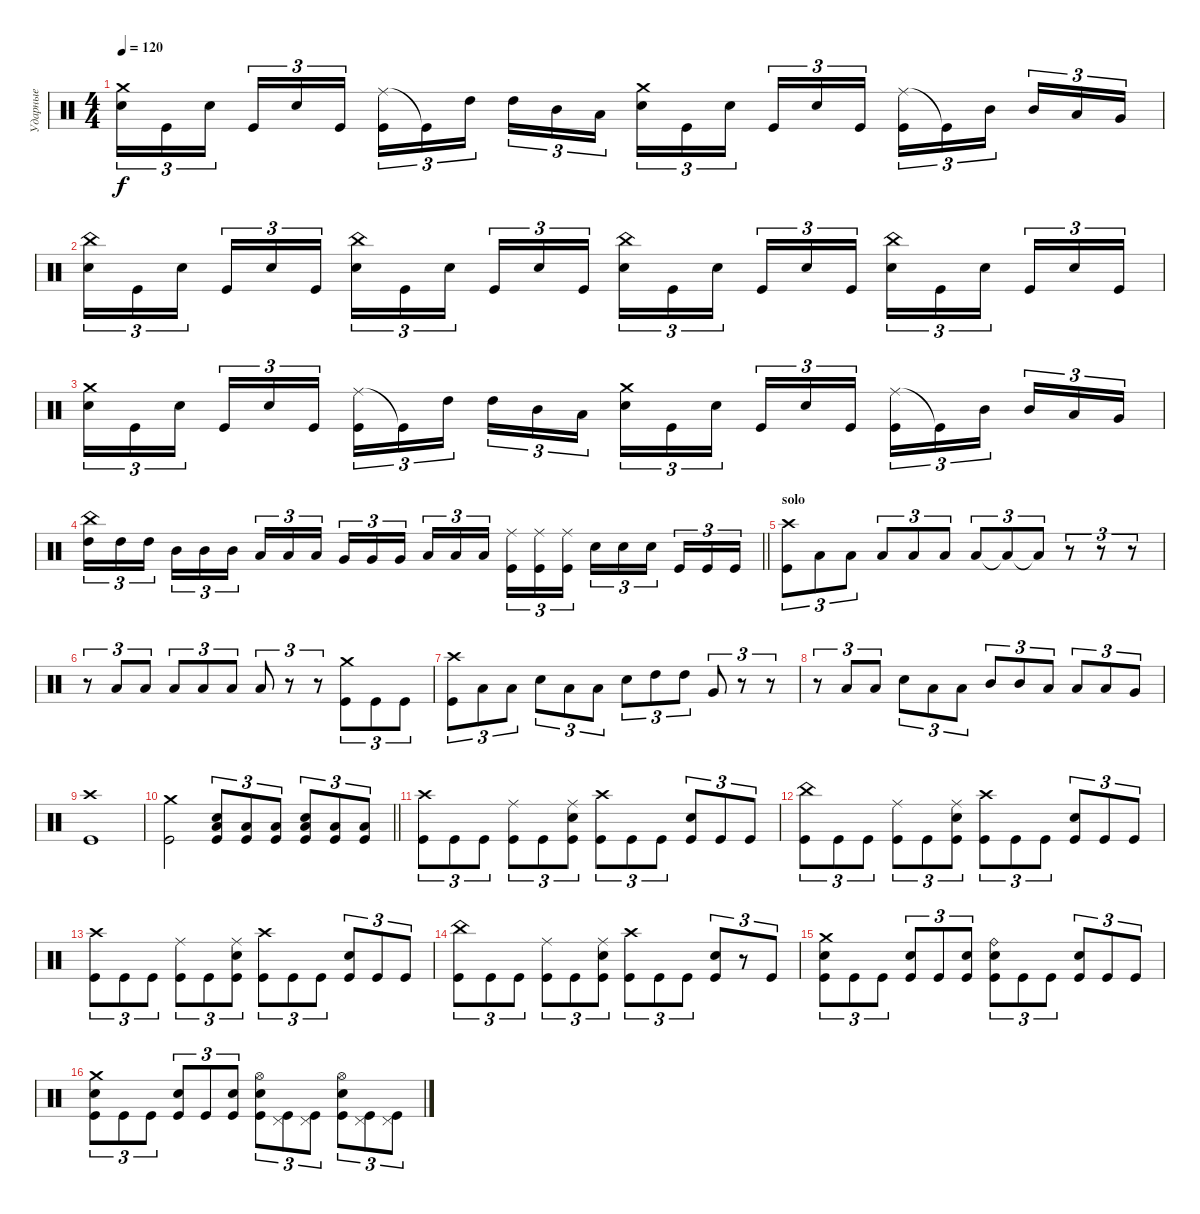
\track ("Ударные" "Ударные") {instrument percussion}
\staff {score}
\articulation defaults
\ts (4 4)
\tempo 120
\clef neutral
\ks c
("Crash medium (hit)" "Electric Snare (hit)").16{tu (3 2) dy f} "Kick (hit)".16{tu (3 2)} "Electric Snare (hit)".16{tu (3 2) beam splitsecondary} "Kick (hit)".16{tu (3 2)} "Electric Snare (hit)".16{tu (3 2)} "Kick (hit)".16{tu (3 2)} ("Ride (middle)" "Kick (hit)").16{tu (3 2)} "Kick (hit)"{t}.16{tu (3 2)} "High Tom (hit)".16{tu (3 2) beam splitsecondary} "High Tom (hit)".16{tu (3 2)} "Mid Tom (hit)".16{tu (3 2)} "Low Tom (hit)".16{tu (3 2)} ("Crash medium (hit)" "Electric Snare (hit)").16{tu (3 2)} "Kick (hit)".16{tu (3 2)} "Electric Snare (hit)".16{tu (3 2) beam splitsecondary} "Kick (hit)".16{tu (3 2)} "Electric Snare (hit)".16{tu (3 2)} "Kick (hit)".16{tu (3 2)} ("Ride (middle)" "Kick (hit)").16{tu (3 2)} "Kick (hit)"{t}.16{tu (3 2)} "Mid Tom (hit)".16{tu (3 2) beam splitsecondary} "Mid Tom (hit)".16{tu (3 2)} "Low Tom (hit)".16{tu (3 2)} "Very Low Tom (hit)".16{tu (3 2)} |
("China (hit)" "Electric Snare (hit)").16{tu (3 2)} "Kick (hit)".16{tu (3 2)} "Electric Snare (hit)".16{tu (3 2) beam splitsecondary} "Kick (hit)".16{tu (3 2)} "Electric Snare (hit)".16{tu (3 2)} "Kick (hit)".16{tu (3 2)} ("China (hit)" "Electric Snare (hit)").16{tu (3 2)} "Kick (hit)".16{tu (3 2)} "Electric Snare (hit)".16{tu (3 2) beam splitsecondary} "Kick (hit)".16{tu (3 2)} "Electric Snare (hit)".16{tu (3 2)} "Kick (hit)".16{tu (3 2)} ("China (hit)" "Electric Snare (hit)").16{tu (3 2)} "Kick (hit)".16{tu (3 2)} "Electric Snare (hit)".16{tu (3 2) beam splitsecondary} "Kick (hit)".16{tu (3 2)} "Electric Snare (hit)".16{tu (3 2)} "Kick (hit)".16{tu (3 2)} ("China (hit)" "Electric Snare (hit)").16{tu (3 2)} "Kick (hit)".16{tu (3 2)} "Electric Snare (hit)".16{tu (3 2) beam splitsecondary} "Kick (hit)".16{tu (3 2)} "Electric Snare (hit)".16{tu (3 2)} "Kick (hit)".16{tu (3 2)} |
("Crash medium (hit)" "Electric Snare (hit)").16{tu (3 2)} "Kick (hit)".16{tu (3 2)} "Electric Snare (hit)".16{tu (3 2) beam splitsecondary} "Kick (hit)".16{tu (3 2)} "Electric Snare (hit)".16{tu (3 2)} "Kick (hit)".16{tu (3 2)} ("Ride (middle)" "Kick (hit)").16{tu (3 2)} "Kick (hit)"{t}.16{tu (3 2)} "High Tom (hit)".16{tu (3 2) beam splitsecondary} "High Tom (hit)".16{tu (3 2)} "Mid Tom (hit)".16{tu (3 2)} "Low Tom (hit)".16{tu (3 2)} ("Crash medium (hit)" "Electric Snare (hit)").16{tu (3 2)} "Kick (hit)".16{tu (3 2)} "Electric Snare (hit)".16{tu (3 2) beam splitsecondary} "Kick (hit)".16{tu (3 2)} "Electric Snare (hit)".16{tu (3 2)} "Kick (hit)".16{tu (3 2)} ("Ride (middle)" "Kick (hit)").16{tu (3 2)} "Kick (hit)"{t}.16{tu (3 2)} "Mid Tom (hit)".16{tu (3 2) beam splitsecondary} "Mid Tom (hit)".16{tu (3 2)} "Low Tom (hit)".16{tu (3 2)} "Very Low Tom (hit)".16{tu (3 2)} |
\barLineRight lightlight
("China (hit)" "High Tom (hit)").16{tu (3 2)} "High Tom (hit)".16{tu (3 2)} "High Tom (hit)".16{tu (3 2) beam splitsecondary} "Mid Tom (hit)".16{tu (3 2)} "Mid Tom (hit)".16{tu (3 2)} "Mid Tom (hit)".16{tu (3 2)} "Low Tom (hit)".16{tu (3 2)} "Low Tom (hit)".16{tu (3 2)} "Low Tom (hit)".16{tu (3 2) beam splitsecondary} "Very Low Tom (hit)".16{tu (3 2)} "Very Low Tom (hit)".16{tu (3 2)} "Very Low Tom (hit)".16{tu (3 2)} "Low Floor Tom (hit)".16{tu (3 2)} "Low Floor Tom (hit)".16{tu (3 2)} "Low Floor Tom (hit)".16{tu (3 2) beam splitsecondary} ("Ride (middle)" "Kick (hit)").16{tu (3 2)} ("Ride (middle)" "Kick (hit)").16{tu (3 2)} ("Ride (middle)" "Kick (hit)").16{tu (3 2)} "Electric Snare (hit)".16{tu (3 2)} "Electric Snare (hit)".16{tu (3 2)} "Electric Snare (hit)".16{tu (3 2) beam splitsecondary} "Kick (hit)".16{tu (3 2)} "Kick (hit)".16{tu (3 2)} "Kick (hit)".16{tu (3 2)} |
\section ("" "solo")
("Crash high (hit)" "Kick (hit)").8{tu (3 2)} "Low Floor Tom (hit)".8{tu (3 2)} "Low Floor Tom (hit)".8{tu (3 2)} "Low Floor Tom (hit)".8{tu (3 2)} "Low Floor Tom (hit)".8{tu (3 2)} "Low Floor Tom (hit)".8{tu (3 2)} "Low Floor Tom (hit)".8{tu (3 2)} "Low Floor Tom (hit)"{t}.8{tu (3 2)} "Low Floor Tom (hit)"{t}.8{tu (3 2)} r.8{tu (3 2)} r.8{tu (3 2)} r.8{tu (3 2)} |
r.8{tu (3 2)} "Low Floor Tom (hit)".8{tu (3 2)} "Low Floor Tom (hit)".8{tu (3 2)} "Low Floor Tom (hit)".8{tu (3 2)} "Low Floor Tom (hit)".8{tu (3 2)} "Low Floor Tom (hit)".8{tu (3 2)} "Low Floor Tom (hit)".8{tu (3 2)} r.8{tu (3 2)} r.8{tu (3 2)} ("Crash medium (hit)" "Kick (hit)").8{tu (3 2)} "Kick (hit)".8{tu (3 2)} "Kick (hit)".8{tu (3 2)} |
("Crash high (hit)" "Kick (hit)").8{tu (3 2)} "Low Floor Tom (hit)".8{tu (3 2)} "Low Floor Tom (hit)".8{tu (3 2)} "Electric Snare (hit)".8{tu (3 2)} "Low Floor Tom (hit)".8{tu (3 2)} "Low Floor Tom (hit)".8{tu (3 2)} "Electric Snare (hit)".8{tu (3 2)} "High Tom (hit)".8{tu (3 2)} "High Tom (hit)".8{tu (3 2)} "Very Low Tom (hit)".8{tu (3 2)} r.8{tu (3 2)} r.8{tu (3 2)} |
r.8{tu (3 2)} "Low Floor Tom (hit)".8{tu (3 2)} "Low Floor Tom (hit)".8{tu (3 2)} "Electric Snare (hit)".8{tu (3 2)} "Low Floor Tom (hit)".8{tu (3 2)} "Low Floor Tom (hit)".8{tu (3 2)} "Mid Tom (hit)".8{tu (3 2)} "Mid Tom (hit)".8{tu (3 2)} "Low Tom (hit)".8{tu (3 2)} "Low Tom (hit)".8{tu (3 2)} "Low Tom (hit)".8{tu (3 2)} "Very Low Tom (hit)".8{tu (3 2)} |
("Crash high (hit)" "Kick (hit)").1 |
\barLineRight lightlight
("Crash medium (hit)" "Kick (hit)").2 ("Low Floor Tom (hit)" "Electric Snare (hit)" "Kick (hit)").8{tu (3 2)} ("Low Floor Tom (hit)" "Kick (hit)").8{tu (3 2)} ("Low Floor Tom (hit)" "Kick (hit)").8{tu (3 2)} ("Low Floor Tom (hit)" "Electric Snare (hit)" "Kick (hit)").8{tu (3 2)} ("Low Floor Tom (hit)" "Kick (hit)").8{tu (3 2)} ("Low Floor Tom (hit)" "Kick (hit)").8{tu (3 2)} |
("Crash high (hit)" "Kick (hit)").8{tu (3 2)} "Kick (hit)".8{tu (3 2)} "Kick (hit)".8{tu (3 2)} ("Ride (middle)" "Kick (hit)").8{tu (3 2)} "Kick (hit)".8{tu (3 2)} ("Ride (middle)" "Kick (hit)" "Electric Snare (hit)").8{tu (3 2)} ("Crash high (hit)" "Kick (hit)").8{tu (3 2)} "Kick (hit)".8{tu (3 2)} "Kick (hit)".8{tu (3 2)} ("Kick (hit)" "Electric Snare (hit)").8{tu (3 2)} "Kick (hit)".8{tu (3 2)} "Kick (hit)".8{tu (3 2)} |
("China (hit)" "Kick (hit)").8{tu (3 2)} "Kick (hit)".8{tu (3 2)} "Kick (hit)".8{tu (3 2)} ("Ride (middle)" "Kick (hit)").8{tu (3 2)} "Kick (hit)".8{tu (3 2)} ("Ride (middle)" "Kick (hit)" "Electric Snare (hit)").8{tu (3 2)} ("Crash high (hit)" "Kick (hit)").8{tu (3 2)} "Kick (hit)".8{tu (3 2)} "Kick (hit)".8{tu (3 2)} ("Kick (hit)" "Electric Snare (hit)").8{tu (3 2)} "Kick (hit)".8{tu (3 2)} "Kick (hit)".8{tu (3 2)} |
("Crash high (hit)" "Kick (hit)").8{tu (3 2)} "Kick (hit)".8{tu (3 2)} "Kick (hit)".8{tu (3 2)} ("Ride (middle)" "Kick (hit)").8{tu (3 2)} "Kick (hit)".8{tu (3 2)} ("Ride (middle)" "Kick (hit)" "Electric Snare (hit)").8{tu (3 2)} ("Crash high (hit)" "Kick (hit)").8{tu (3 2)} "Kick (hit)".8{tu (3 2)} "Kick (hit)".8{tu (3 2)} ("Kick (hit)" "Electric Snare (hit)").8{tu (3 2)} "Kick (hit)".8{tu (3 2)} "Kick (hit)".8{tu (3 2)} |
("China (hit)" "Kick (hit)").8{tu (3 2)} "Kick (hit)".8{tu (3 2)} "Kick (hit)".8{tu (3 2)} ("Ride (middle)" "Kick (hit)").8{tu (3 2)} "Kick (hit)".8{tu (3 2)} ("Ride (middle)" "Kick (hit)" "Electric Snare (hit)").8{tu (3 2)} ("Crash high (hit)" "Kick (hit)").8{tu (3 2)} "Kick (hit)".8{tu (3 2)} "Kick (hit)".8{tu (3 2)} ("Kick (hit)" "Electric Snare (hit)").8{tu (3 2)} r.8{tu (3 2)} "Kick (hit)".8{tu (3 2)} |
("Crash medium (hit)" "Kick (hit)" "Electric Snare (hit)").8{tu (3 2)} "Kick (hit)".8{tu (3 2)} "Kick (hit)".8{tu (3 2)} ("Electric Snare (hit)" "Kick (hit)").8{tu (3 2)} "Kick (hit)".8{tu (3 2)} ("Kick (hit)" "Electric Snare (hit)").8{tu (3 2)} ("Ride (bell)" "Electric Snare (hit)" "Kick (hit)").8{tu (3 2)} "Kick (hit)".8{tu (3 2)} "Kick (hit)".8{tu (3 2)} ("Kick (hit)" "Electric Snare (hit)").8{tu (3 2)} "Kick (hit)".8{tu (3 2)} "Kick (hit)".8{tu (3 2)} |
("Crash medium (hit)" "Kick (hit)" "Electric Snare (hit)").8{tu (3 2)} "Kick (hit)".8{tu (3 2)} "Kick (hit)".8{tu (3 2)} ("Electric Snare (hit)" "Kick (hit)").8{tu (3 2)} "Kick (hit)".8{tu (3 2)} ("Kick (hit)" "Electric Snare (hit)").8{tu (3 2)} ("Hi-Hat (open)" "Electric Snare (hit)" "Kick (hit)").8{tu (3 2)} ("Pedal Hi-Hat (hit)" "Kick (hit)").8{tu (3 2)} ("Pedal Hi-Hat (hit)" "Kick (hit)").8{tu (3 2)} ("Hi-Hat (open)" "Kick (hit)" "Electric Snare (hit)").8{tu (3 2)} ("Pedal Hi-Hat (hit)" "Kick (hit)").8{tu (3 2)} ("Pedal Hi-Hat (hit)" "Kick (hit)").8{tu (3 2)}
